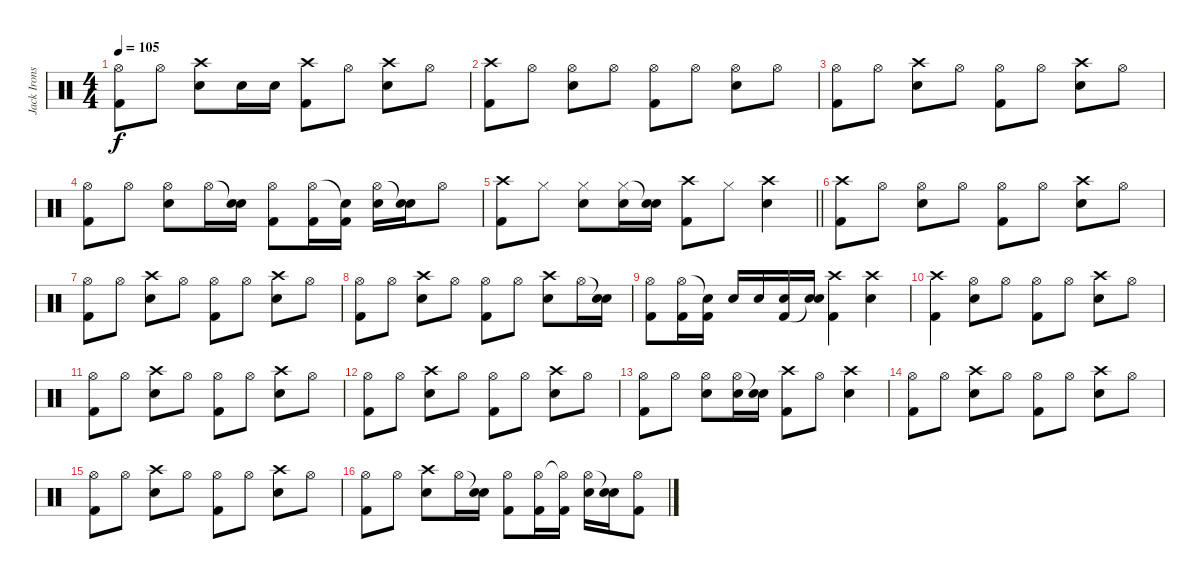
\track ("Jack Irons" "Jack Irons") {instrument percussion}
\staff {score}
\articulation defaults
\ts (4 4)
\tempo 105
\clef neutral
\ks c
("Hi-Hat (open)" "Kick (hit) 2").8{dy f} "Hi-Hat (open)".8 ("Crash high (hit)" "Snare (hit) 2").8 "Snare (hit) 2".16 "Snare (hit) 2".16 ("Crash high (hit)" "Kick (hit) 2").8 "Hi-Hat (open)".8 ("Crash high (hit)" "Snare (hit) 2").8 "Hi-Hat (open)".8 |
("Crash high (hit)" "Kick (hit) 2").8 "Hi-Hat (open)".8 ("Hi-Hat (open)" "Snare (hit) 2").8 "Hi-Hat (open)".8 ("Hi-Hat (open)" "Kick (hit) 2").8 "Hi-Hat (open)".8 ("Hi-Hat (open)" "Snare (hit) 2").8 "Hi-Hat (open)".8 |
("Hi-Hat (open)" "Kick (hit) 2").8 "Hi-Hat (open)".8 ("Crash high (hit)" "Snare (hit) 2").8 "Hi-Hat (open)".8 ("Hi-Hat (open)" "Kick (hit) 2").8 "Hi-Hat (open)".8 ("Crash high (hit)" "Snare (hit) 2").8 "Hi-Hat (open)".8 |
("Hi-Hat (open)" "Kick (hit) 2").8 "Hi-Hat (open)".8 ("Hi-Hat (open)" "Snare (hit) 2").8 "Hi-Hat (open)".16 ("Snare (hit)"{t} "Snare (hit) 2").16 ("Hi-Hat (open)" "Kick (hit) 2").8 ("Hi-Hat (open)" "Kick (hit) 2").16 ("Snare (hit)"{t} "Kick (hit) 2").16 ("Hi-Hat (open)" "Snare (hit) 2").16 ("Snare (hit)"{t} "Snare (hit) 2").16 "Hi-Hat (open)".8 |
\barLineRight lightlight
("Crash high (hit)" "Kick (hit) 2").8 "Hi-Hat (closed)".8 ("Hi-Hat (closed)" "Snare (hit) 2").8 ("Hi-Hat (closed)" "Snare (hit) 2").16 ("Snare (hit)"{t} "Snare (hit) 2").16 ("Crash high (hit)" "Kick (hit) 2").8 "Hi-Hat (closed)".8 ("Crash high (hit)" "Snare (hit) 2").4 |
("Crash high (hit)" "Kick (hit) 2").8 "Hi-Hat (open)".8 ("Hi-Hat (open)" "Snare (hit) 2").8 "Hi-Hat (open)".8 ("Hi-Hat (open)" "Kick (hit) 2").8 "Hi-Hat (open)".8 ("Crash high (hit)" "Snare (hit) 2").8 "Hi-Hat (open)".8 |
("Hi-Hat (open)" "Kick (hit) 2").8 "Hi-Hat (open)".8 ("Crash high (hit)" "Snare (hit) 2").8 "Hi-Hat (open)".8 ("Hi-Hat (open)" "Kick (hit) 2").8 "Hi-Hat (open)".8 ("Crash high (hit)" "Snare (hit) 2").8 "Hi-Hat (open)".8 |
("Hi-Hat (open)" "Kick (hit) 2").8 "Hi-Hat (open)".8 ("Crash high (hit)" "Snare (hit) 2").8 "Hi-Hat (open)".8 ("Hi-Hat (open)" "Kick (hit) 2").8 "Hi-Hat (open)".8 ("Crash high (hit)" "Snare (hit) 2").8 "Hi-Hat (open)".16 ("Snare (hit)"{t} "Snare (hit) 2").16 |
("Hi-Hat (open)" "Kick (hit) 2").8 ("Hi-Hat (open)" "Kick (hit) 2").16 ("Snare (hit)"{t} "Kick (hit) 2").16 "Snare (hit) 2".16 "Snare (hit) 2".16 ("Snare (hit) 2" "Kick (hit) 2").16 ("Snare (hit) 2" "Snare (hit)"{t}).16 ("Crash high (hit)" "Kick (hit) 2").4 ("Crash high (hit)" "Snare (hit) 2").4 |
("Crash high (hit)" "Kick (hit) 2").4 ("Hi-Hat (open)" "Snare (hit) 2").8 "Hi-Hat (open)".8 ("Hi-Hat (open)" "Kick (hit) 2").8 "Hi-Hat (open)".8 ("Crash high (hit)" "Snare (hit) 2").8 "Hi-Hat (open)".8 |
("Hi-Hat (open)" "Kick (hit) 2").8 "Hi-Hat (open)".8 ("Crash high (hit)" "Snare (hit) 2").8 "Hi-Hat (open)".8 ("Hi-Hat (open)" "Kick (hit) 2").8 "Hi-Hat (open)".8 ("Crash high (hit)" "Snare (hit) 2").8 "Hi-Hat (open)".8 |
("Hi-Hat (open)" "Kick (hit) 2").8 "Hi-Hat (open)".8 ("Crash high (hit)" "Snare (hit) 2").8 "Hi-Hat (open)".8 ("Hi-Hat (open)" "Kick (hit) 2").8 "Hi-Hat (open)".8 ("Crash high (hit)" "Snare (hit) 2").8 "Hi-Hat (open)".8 |
("Hi-Hat (open)" "Kick (hit) 2").8 "Hi-Hat (open)".8 ("Hi-Hat (open)" "Snare (hit) 2").8 ("Hi-Hat (open)" "Snare (hit) 2").16 ("Snare (hit)"{t} "Snare (hit) 2").16 ("Crash high (hit)" "Kick (hit) 2").8 "Hi-Hat (open)".8 ("Crash high (hit)" "Snare (hit) 2").4 |
("Hi-Hat (open)" "Kick (hit) 2").8 "Hi-Hat (open)".8 ("Crash high (hit)" "Snare (hit) 2").8 "Hi-Hat (open)".8 ("Hi-Hat (open)" "Kick (hit) 2").8 "Hi-Hat (open)".8 ("Crash high (hit)" "Snare (hit) 2").8 "Hi-Hat (open)".8 |
("Hi-Hat (open)" "Kick (hit) 2").8 "Hi-Hat (open)".8 ("Crash high (hit)" "Snare (hit) 2").8 "Hi-Hat (open)".8 ("Hi-Hat (open)" "Kick (hit) 2").8 "Hi-Hat (open)".8 ("Crash high (hit)" "Snare (hit) 2").8 "Hi-Hat (open)".8 |
("Hi-Hat (open)" "Kick (hit) 2").8 "Hi-Hat (open)".8 ("Crash high (hit)" "Snare (hit) 2").8 "Hi-Hat (open)".16 ("Snare (hit)"{t} "Snare (hit) 2").16 ("Hi-Hat (open)" "Kick (hit) 2").8 ("Hi-Hat (open)" "Kick (hit) 2").16 ("Hi-Hat (open)"{t} "Kick (hit) 2").16 ("Hi-Hat (open)" "Snare (hit) 2").16 ("Snare (hit)"{t} "Snare (hit) 2").16 ("Hi-Hat (open)" "Kick (hit) 2").8
